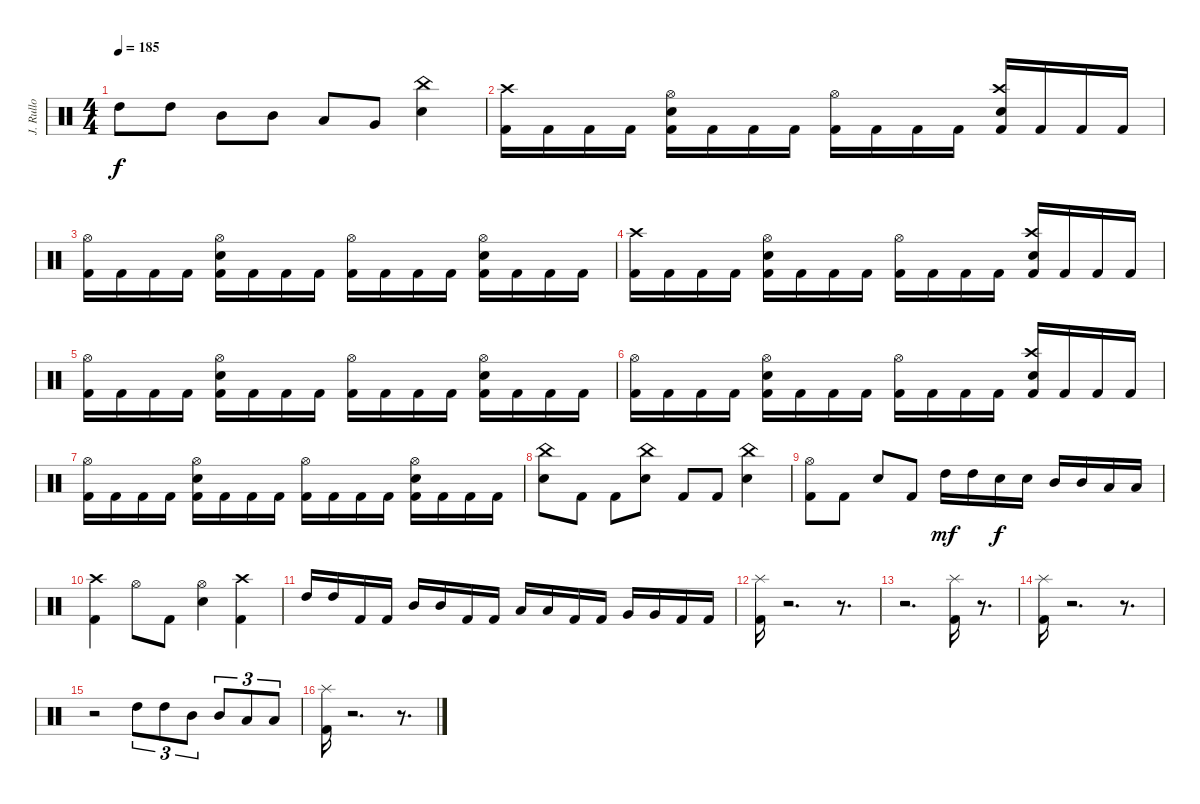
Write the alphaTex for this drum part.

\track ("J. Rullo" "J. Rullo") {instrument percussion}
\staff {score}
\articulation defaults
\ts (4 4)
\tempo 185
\clef neutral
\ks c "High Tom (hit)".8{dy f} "High Tom (hit)".8 "Mid Tom (hit)".8 "Mid Tom (hit)".8 "Low Tom (hit)".8 "Very Low Tom (hit)".8
("China (hit)" "Snare (hit) 2").4 |
("Crash high (hit)" "Kick (hit) 2").16 "Kick (hit) 2".16 "Kick (hit) 2".16 "Kick (hit) 2".16 ("Hi-Hat (open)" "Snare (hit) 2" "Kick (hit) 2").16 "Kick (hit) 2".16 "Kick (hit) 2".16 "Kick (hit) 2".16 ("Hi-Hat (open)" "Kick (hit) 2").16 "Kick (hit) 2".16 "Kick (hit) 2".16 "Kick (hit) 2".16 ("Crash high (hit)" "Snare (hit) 2" "Kick (hit) 2").16 "Kick (hit) 2".16 "Kick (hit) 2".16 "Kick (hit) 2".16 |
("Hi-Hat (open)" "Kick (hit) 2").16 "Kick (hit) 2".16 "Kick (hit) 2".16 "Kick (hit) 2".16 ("Hi-Hat (open)" "Snare (hit) 2" "Kick (hit) 2").16 "Kick (hit) 2".16 "Kick (hit) 2".16 "Kick (hit) 2".16 ("Hi-Hat (open)" "Kick (hit) 2").16 "Kick (hit) 2".16 "Kick (hit) 2".16 "Kick (hit) 2".16 ("Hi-Hat (open)" "Snare (hit) 2" "Kick (hit) 2").16 "Kick (hit) 2".16 "Kick (hit) 2".16 "Kick (hit) 2".16 |
("Crash high (hit)" "Kick (hit) 2").16 "Kick (hit) 2".16 "Kick (hit) 2".16 "Kick (hit) 2".16 ("Hi-Hat (open)" "Snare (hit) 2" "Kick (hit) 2").16 "Kick (hit) 2".16 "Kick (hit) 2".16 "Kick (hit) 2".16 ("Hi-Hat (open)" "Kick (hit) 2").16 "Kick (hit) 2".16 "Kick (hit) 2".16 "Kick (hit) 2".16 ("Crash high (hit)" "Snare (hit) 2" "Kick (hit) 2").16 "Kick (hit) 2".16 "Kick (hit) 2".16 "Kick (hit) 2".16 |
("Hi-Hat (open)" "Kick (hit) 2").16 "Kick (hit) 2".16 "Kick (hit) 2".16 "Kick (hit) 2".16 ("Hi-Hat (open)" "Snare (hit) 2" "Kick (hit) 2").16 "Kick (hit) 2".16 "Kick (hit) 2".16 "Kick (hit) 2".16 ("Hi-Hat (open)" "Kick (hit) 2").16 "Kick (hit) 2".16 "Kick (hit) 2".16 "Kick (hit) 2".16 ("Hi-Hat (open)" "Snare (hit) 2" "Kick (hit) 2").16 "Kick (hit) 2".16 "Kick (hit) 2".16 "Kick (hit) 2".16 |
("Hi-Hat (open)" "Kick (hit) 2").16 "Kick (hit) 2".16 "Kick (hit) 2".16 "Kick (hit) 2".16 ("Hi-Hat (open)" "Snare (hit) 2" "Kick (hit) 2").16 "Kick (hit) 2".16 "Kick (hit) 2".16 "Kick (hit) 2".16 ("Hi-Hat (open)" "Kick (hit) 2").16 "Kick (hit) 2".16 "Kick (hit) 2".16 "Kick (hit) 2".16 ("Crash high (hit)" "Snare (hit) 2" "Kick (hit) 2").16 "Kick (hit) 2".16 "Kick (hit) 2".16 "Kick (hit) 2".16 |
("Hi-Hat (open)" "Kick (hit) 2").16 "Kick (hit) 2".16 "Kick (hit) 2".16 "Kick (hit) 2".16 ("Hi-Hat (open)" "Snare (hit) 2" "Kick (hit) 2").16 "Kick (hit) 2".16 "Kick (hit) 2".16 "Kick (hit) 2".16 ("Hi-Hat (open)" "Kick (hit) 2").16 "Kick (hit) 2".16 "Kick (hit) 2".16 "Kick (hit) 2".16 ("Hi-Hat (open)" "Snare (hit) 2" "Kick (hit) 2").16 "Kick (hit) 2".16 "Kick (hit) 2".16 "Kick (hit) 2".16 |
("China (hit)" "Snare (hit) 2").8 "Kick (hit) 2".8 "Kick (hit) 2".8 ("China (hit)" "Snare (hit) 2").8 "Kick (hit) 2".8 "Kick (hit) 2".8 ("China (hit)" "Snare (hit) 2").4 |
("Hi-Hat (open)" "Kick (hit) 2").8 "Kick (hit) 2".8 "Snare (hit) 2".8 "Kick (hit) 2".8 "High Tom (hit)".16{dy mf} "High Tom (hit)".16 "Snare (hit) 2".16{dy f} "Snare (hit) 2".16 "Mid Tom (hit)".16 "Mid Tom (hit)".16 "Low Tom (hit)".16 "Low Tom (hit)".16 |
("Crash high (hit)" "Kick (hit) 2").4 "Hi-Hat (open)".8 "Kick (hit) 2".8 ("Hi-Hat (open)" "Snare (hit) 2").4 ("Crash high (hit)" "Kick (hit) 2").4 |
"High Tom (hit)".16 "High Tom (hit)".16 "Kick (hit) 2".16 "Kick (hit) 2".16 "Mid Tom (hit)".16 "Mid Tom (hit)".16 "Kick (hit) 2".16 "Kick (hit) 2".16 "Low Tom (hit)".16 "Low Tom (hit)".16 "Kick (hit) 2".16 "Kick (hit) 2".16 "Very Low Tom (hit)".16 "Very Low Tom (hit)".16 "Kick (hit) 2".16 "Kick (hit) 2".16 |
("Splash (hit)" "Kick (hit) 2").16 r.2{d} r.8{d} |
r.2{d} ("Splash (hit)" "Kick (hit) 2").16 r.8{d} |
("Splash (hit)" "Kick (hit) 2").16 r.2{d} r.8{d} |
r.2 "High Tom (hit)".8{tu (3 2)} "High Tom (hit)".8{tu (3 2)} "Mid Tom (hit)".8{tu (3 2)} "Mid Tom (hit)".8{tu (3 2)} "Low Tom (hit)".8{tu (3 2)} "Low Tom (hit)".8{tu (3 2)} |
("Splash (hit)" "Kick (hit) 2").16 r.2{d} r.8{d}
